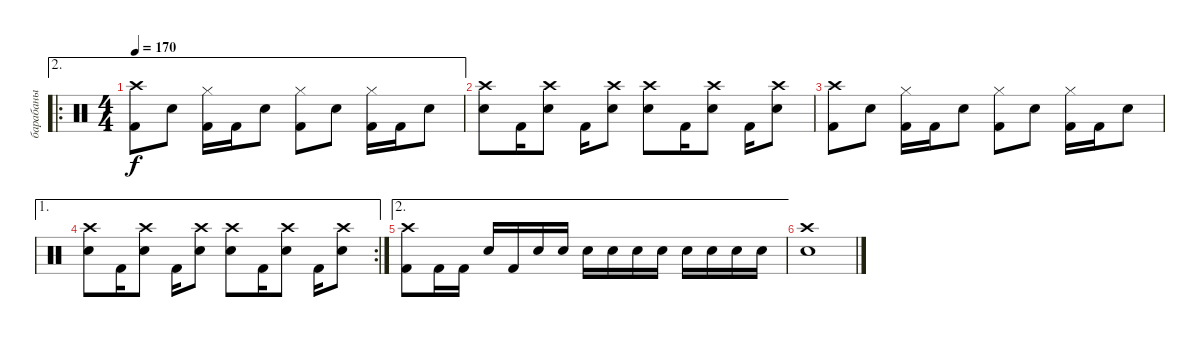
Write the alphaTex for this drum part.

\track ("барабаны" "барабаны") {instrument percussion}
\staff {score}
\articulation defaults
\ae 2
\ro
\ts (4 4)
\tempo 170
\clef neutral
\ks c
("Crash high (hit)" "Kick (hit) 2").8{dy f} "Snare (hit) 2".8 ("Hi-Hat (closed)" "Kick (hit) 2").16 "Kick (hit) 2".16 "Snare (hit) 2".8 ("Hi-Hat (closed)" "Kick (hit) 2").8 "Snare (hit) 2".8 ("Hi-Hat (closed)" "Kick (hit) 2").16 "Kick (hit) 2".16 "Snare (hit) 2".8 |
("Crash high (hit)" "Snare (hit) 2").8 "Kick (hit) 2".16 ("Crash high (hit)" "Snare (hit) 2").8 "Kick (hit) 2".16 ("Crash high (hit)" "Snare (hit) 2").8 ("Crash high (hit)" "Snare (hit) 2").8 "Kick (hit) 2".16 ("Crash high (hit)" "Snare (hit) 2").8 "Kick (hit) 2".16 ("Crash high (hit)" "Snare (hit) 2").8 |
("Crash high (hit)" "Kick (hit) 2").8 "Snare (hit) 2".8 ("Hi-Hat (closed)" "Kick (hit) 2").16 "Kick (hit) 2".16 "Snare (hit) 2".8 ("Hi-Hat (closed)" "Kick (hit) 2").8 "Snare (hit) 2".8 ("Hi-Hat (closed)" "Kick (hit) 2").16 "Kick (hit) 2".16 "Snare (hit) 2".8 |
\ae 1
\rc 2
("Crash high (hit)" "Snare (hit) 2").8 "Kick (hit) 2".16 ("Crash high (hit)" "Snare (hit) 2").8 "Kick (hit) 2".16 ("Crash high (hit)" "Snare (hit) 2").8 ("Crash high (hit)" "Snare (hit) 2").8 "Kick (hit) 2".16 ("Crash high (hit)" "Snare (hit) 2").8 "Kick (hit) 2".16 ("Crash high (hit)" "Snare (hit) 2").8 |
\ae 2
("Crash high (hit)" "Kick (hit) 2").8 "Kick (hit) 2".16 "Kick (hit) 2".16 "Snare (hit) 2".16 "Kick (hit) 2".16 "Snare (hit) 2".16 "Snare (hit) 2".16 "Snare (hit) 2".16 "Snare (hit) 2".16 "Snare (hit) 2".16 "Snare (hit) 2".16 "Snare (hit) 2".16 "Snare (hit) 2".16 "Snare (hit) 2".16 "Snare (hit) 2".16 |
("Crash high (hit)" "Snare (hit) 2").1
